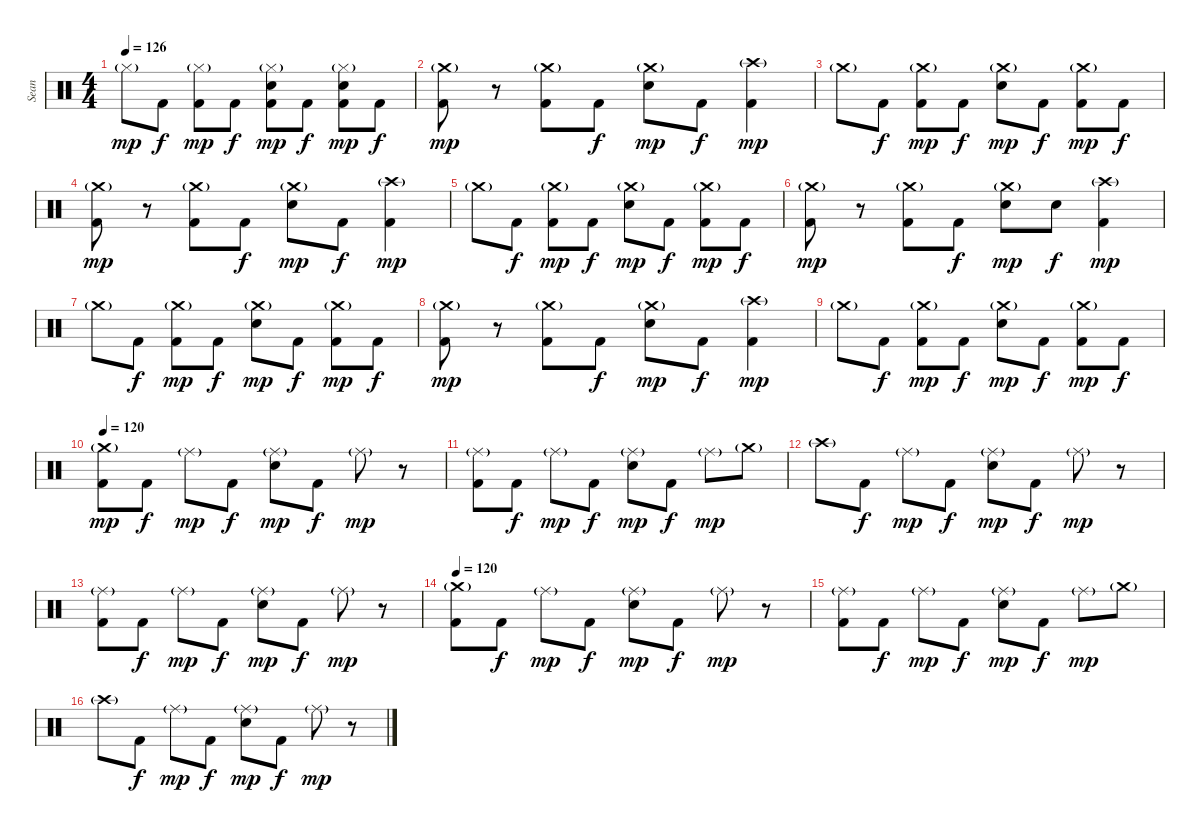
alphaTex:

\track ("Sean" "Sean") {instrument percussion}
\staff {score}
\articulation defaults
\ts (4 4)
\tempo 126
\clef neutral
\ks c "Hi-Hat (closed)"{g}.8{dy mp} "Kick (hit) 2".8{dy f}
("Hi-Hat (closed)"{g} "Kick (hit) 2").8{dy mp} "Kick (hit) 2".8{dy f} ("Hi-Hat (closed)"{g} "Electric Snare (hit)" "Kick (hit) 2").8{dy mp} "Kick (hit) 2".8{dy f} ("Hi-Hat (closed)"{g} "Electric Snare (hit)" "Kick (hit) 2").8{dy mp} "Kick (hit) 2".8{dy f} |
("Crash medium (hit)"{g} "Kick (hit) 2").8{dy mp} r.8 ("Crash medium (hit)"{g} "Kick (hit) 2").8 "Kick (hit) 2".8{dy f} ("Crash medium (hit)"{g} "Electric Snare (hit)").8{dy mp} "Kick (hit) 2".8{dy f} ("Crash high (hit)"{g} "Kick (hit) 2").4{dy mp} |
"Crash medium (hit)"{g}.8 "Kick (hit) 2".8{dy f} ("Crash medium (hit)"{g} "Kick (hit) 2").8{dy mp} "Kick (hit) 2".8{dy f} ("Crash medium (hit)"{g} "Electric Snare (hit)").8{dy mp} "Kick (hit) 2".8{dy f} ("Crash medium (hit)"{g} "Kick (hit) 2").8{dy mp} "Kick (hit) 2".8{dy f} |
("Crash medium (hit)"{g} "Kick (hit) 2").8{dy mp} r.8 ("Crash medium (hit)"{g} "Kick (hit) 2").8 "Kick (hit) 2".8{dy f} ("Crash medium (hit)"{g} "Electric Snare (hit)").8{dy mp} "Kick (hit) 2".8{dy f} ("Crash high (hit)"{g} "Kick (hit) 2").4{dy mp} |
"Crash medium (hit)"{g}.8 "Kick (hit) 2".8{dy f} ("Crash medium (hit)"{g} "Kick (hit) 2").8{dy mp} "Kick (hit) 2".8{dy f} ("Crash medium (hit)"{g} "Electric Snare (hit)").8{dy mp} "Kick (hit) 2".8{dy f} ("Crash medium (hit)"{g} "Kick (hit) 2").8{dy mp} "Kick (hit) 2".8{dy f} |
("Crash medium (hit)"{g} "Kick (hit) 2").8{dy mp} r.8 ("Crash medium (hit)"{g} "Kick (hit) 2").8 "Kick (hit) 2".8{dy f} ("Crash medium (hit)"{g} "Electric Snare (hit)").8{dy mp} "Electric Snare (hit)".8{dy f} ("Crash high (hit)"{g} "Kick (hit) 2").4{dy mp} |
"Crash medium (hit)"{g}.8 "Kick (hit) 2".8{dy f} ("Crash medium (hit)"{g} "Kick (hit) 2").8{dy mp} "Kick (hit) 2".8{dy f} ("Crash medium (hit)"{g} "Electric Snare (hit)").8{dy mp} "Kick (hit) 2".8{dy f} ("Crash medium (hit)"{g} "Kick (hit) 2").8{dy mp} "Kick (hit) 2".8{dy f} |
("Crash medium (hit)"{g} "Kick (hit) 2").8{dy mp} r.8 ("Crash medium (hit)"{g} "Kick (hit) 2").8 "Kick (hit) 2".8{dy f} ("Crash medium (hit)"{g} "Electric Snare (hit)").8{dy mp} "Kick (hit) 2".8{dy f} ("Crash high (hit)"{g} "Kick (hit) 2").4{dy mp} |
"Crash medium (hit)"{g}.8 "Kick (hit) 2".8{dy f} ("Crash medium (hit)"{g} "Kick (hit) 2").8{dy mp} "Kick (hit) 2".8{dy f} ("Crash medium (hit)"{g} "Electric Snare (hit)").8{dy mp} "Kick (hit) 2".8{dy f} ("Crash medium (hit)"{g} "Kick (hit) 2").8{dy mp} "Kick (hit) 2".8{dy f} |
\tempo 120
("Crash medium (hit)"{g} "Kick (hit) 2").8{dy mp} "Kick (hit) 2".8{dy f} "Ride (middle)"{g}.8{dy mp} "Kick (hit) 2".8{dy f} ("Ride (middle)"{g} "Electric Snare (hit)").8{dy mp} "Kick (hit) 2".8{dy f} "Ride (middle)"{g}.8{dy mp} r.8 |
("Ride (middle)"{g} "Kick (hit) 2").8 "Kick (hit) 2".8{dy f} "Ride (middle)"{g}.8{dy mp} "Kick (hit) 2".8{dy f} ("Ride (middle)"{g} "Electric Snare (hit)").8{dy mp} "Kick (hit) 2".8{dy f} "Ride (middle)"{g}.8{dy mp} "Crash medium (hit)"{g}.8 |
"Crash high (hit)"{g}.8 "Kick (hit) 2".8{dy f} "Ride (middle)"{g}.8{dy mp} "Kick (hit) 2".8{dy f} ("Ride (middle)"{g} "Electric Snare (hit)").8{dy mp} "Kick (hit) 2".8{dy f} "Ride (middle)"{g}.8{dy mp} r.8 |
("Ride (middle)"{g} "Kick (hit) 2").8 "Kick (hit) 2".8{dy f} "Ride (middle)"{g}.8{dy mp} "Kick (hit) 2".8{dy f} ("Ride (middle)"{g} "Electric Snare (hit)").8{dy mp} "Kick (hit) 2".8{dy f} "Ride (middle)"{g}.8{dy mp} r.8 |
\tempo 120
("Crash medium (hit)"{g} "Kick (hit) 2").8 "Kick (hit) 2".8{dy f} "Ride (middle)"{g}.8{dy mp} "Kick (hit) 2".8{dy f} ("Ride (middle)"{g} "Electric Snare (hit)").8{dy mp} "Kick (hit) 2".8{dy f} "Ride (middle)"{g}.8{dy mp} r.8 |
("Ride (middle)"{g} "Kick (hit) 2").8 "Kick (hit) 2".8{dy f} "Ride (middle)"{g}.8{dy mp} "Kick (hit) 2".8{dy f} ("Ride (middle)"{g} "Electric Snare (hit)").8{dy mp} "Kick (hit) 2".8{dy f} "Ride (middle)"{g}.8{dy mp} "Crash medium (hit)"{g}.8 |
"Crash high (hit)"{g}.8 "Kick (hit) 2".8{dy f} "Ride (middle)"{g}.8{dy mp} "Kick (hit) 2".8{dy f} ("Ride (middle)"{g} "Electric Snare (hit)").8{dy mp} "Kick (hit) 2".8{dy f} "Ride (middle)"{g}.8{dy mp} r.8
